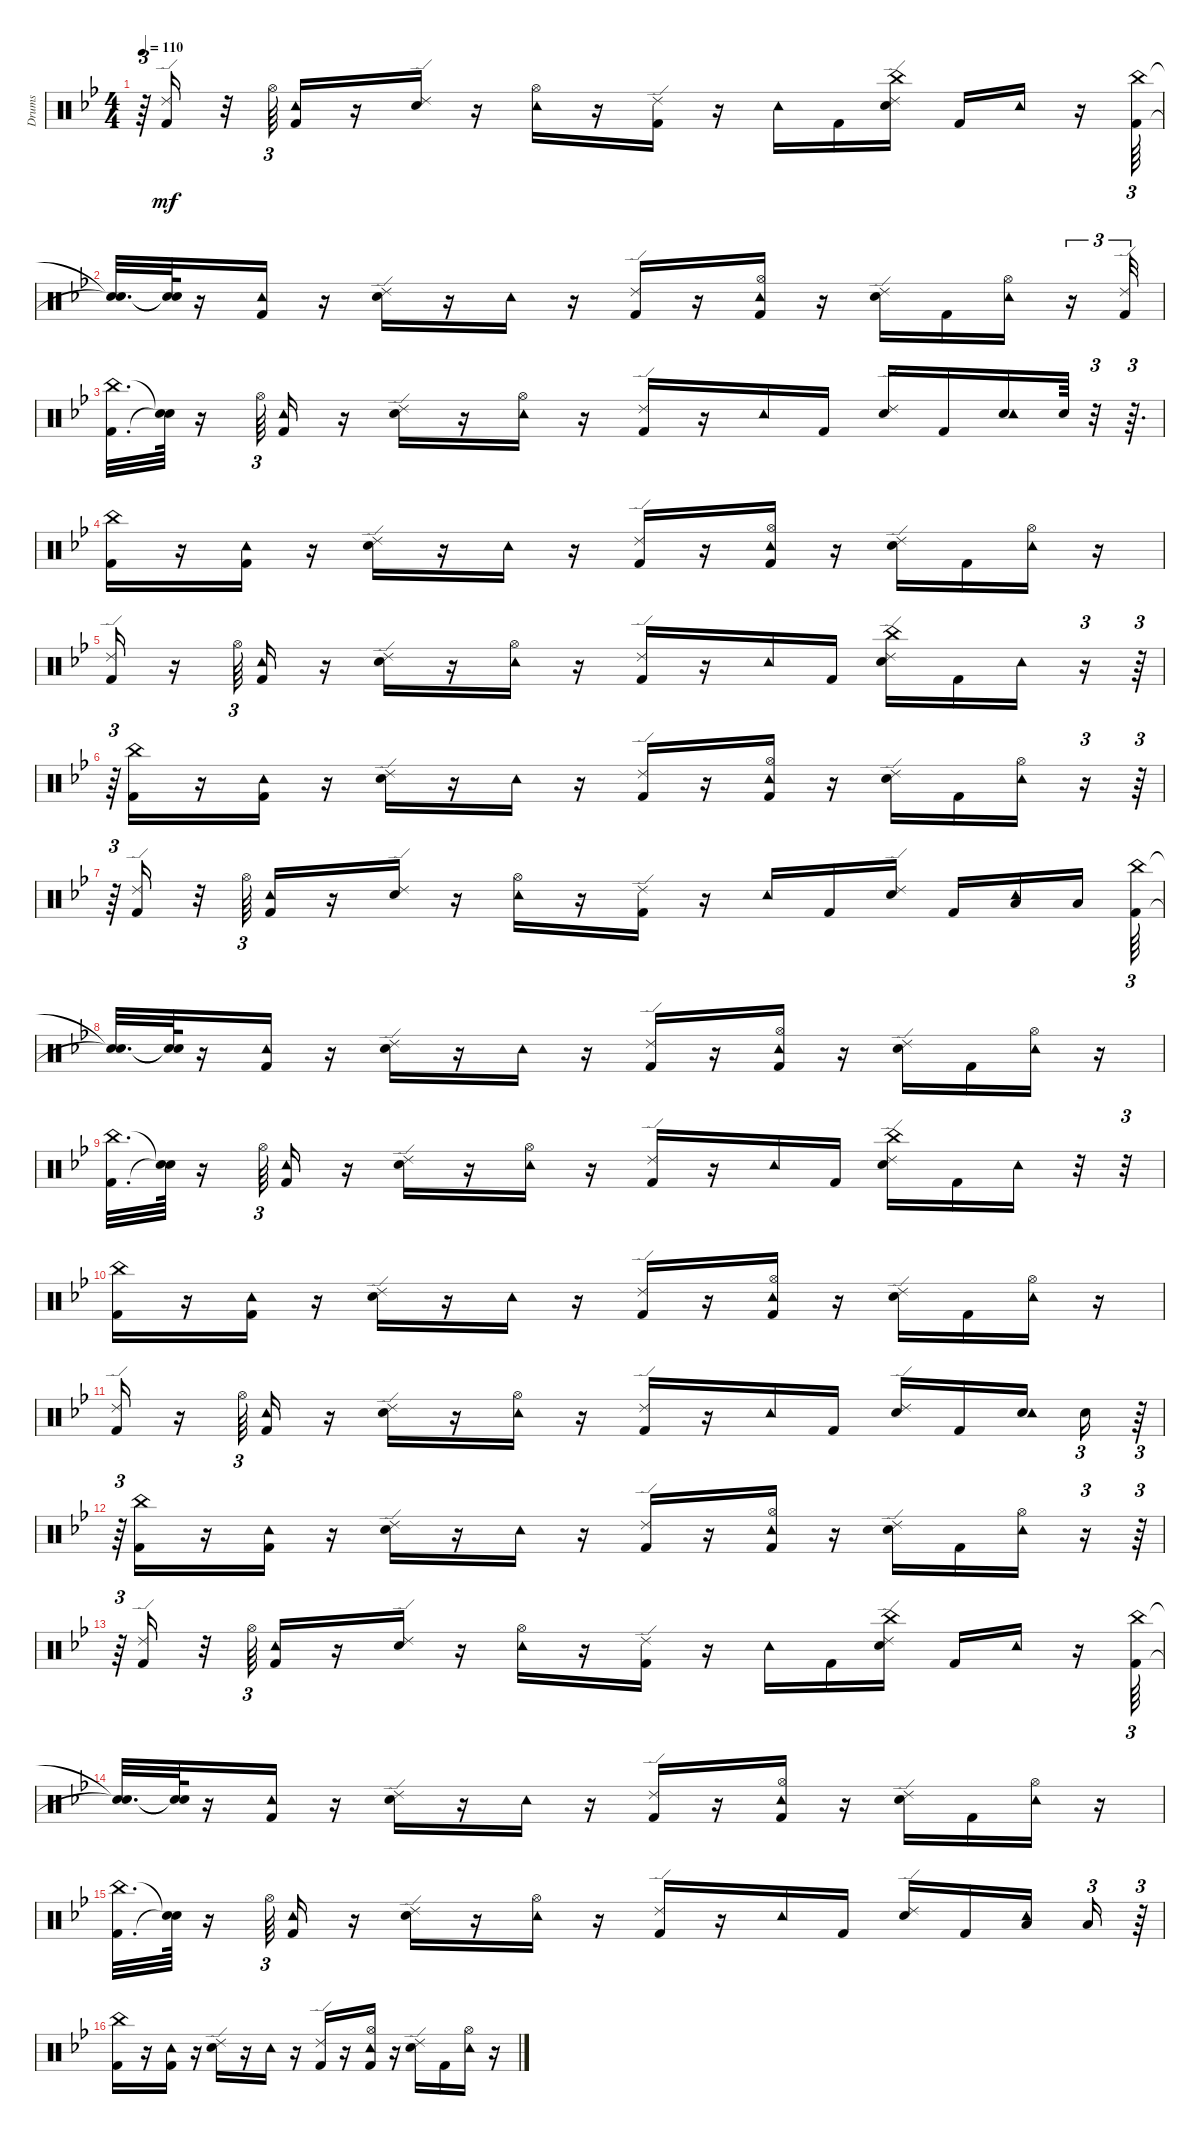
\track ("Drums" "Drums") {instrument percussion}
\staff {score}
\articulation defaults
\ts (4 4)
\tempo 110
\clef neutral
\ks gminor
r.64{tu (3 2) dy mf} ("Kick (hit) 2" "Ride (edge) 2").16 r.32 "Hi-Hat (open)".64{tu (3 2)} ("Kick (hit) 2" "Tambourine (hit)").16 r.16 ("Snare (hit) 2" "Ride (edge) 2").16 r.16 ("Hi-Hat (open)" "Tambourine (hit)").16 r.16 ("Kick (hit) 2" "Ride (edge) 2").16 r.16 "Tambourine (hit)".16 "Kick (hit) 2".16 ("Snare (hit) 2" "China (hit)" "Ride (edge) 2").16 "Kick (hit) 2".16 "Tambourine (hit)".16 r.16 ("Kick (hit) 2" "China (hit)").64{tu (3 2)} |
("Snare (hit)"{t} "Snare (hit)"{t}).32{d} ("Snare (hit)"{t} "Snare (hit)"{t}).64 r.16 ("Kick (hit) 2" "Tambourine (hit)").16 r.16 ("Snare (hit) 2" "Ride (edge) 2").16 r.16 "Tambourine (hit)".16 r.16 ("Kick (hit) 2" "Ride (edge) 2").16 r.16 ("Kick (hit) 2" "Hi-Hat (open)" "Tambourine (hit)").16 r.16 ("Snare (hit) 2" "Ride (edge) 2").16 "Kick (hit) 2".16 ("Hi-Hat (open)" "Tambourine (hit)").16 r.16{tu (3 2)} ("Kick (hit) 2" "Ride (edge) 2").32{tu (3 2)} |
("Kick (hit) 2" "China (hit)").32{d} ("Snare (hit)"{t} "Snare (hit)"{t}).64 r.16 "Hi-Hat (open)".64{tu (3 2)} ("Kick (hit) 2" "Tambourine (hit)").16 r.16 ("Snare (hit) 2" "Ride (edge) 2").16 r.16 ("Hi-Hat (open)" "Tambourine (hit)").16 r.16 ("Kick (hit) 2" "Ride (edge) 2").16 r.16 "Tambourine (hit)".16 "Kick (hit) 2".16 ("Snare (hit) 2" "Ride (edge) 2").16 "Kick (hit) 2".16 ("Snare (hit) 2" "Tambourine (hit)").16 "Snare (hit) 2".64 r.32{tu (3 2)} r.64{d tu (3 2)} |
("Kick (hit) 2" "China (hit)").16 r.16 ("Kick (hit) 2" "Tambourine (hit)").16 r.16 ("Snare (hit) 2" "Ride (edge) 2").16 r.16 "Tambourine (hit)".16 r.16 ("Kick (hit) 2" "Ride (edge) 2").16 r.16 ("Kick (hit) 2" "Hi-Hat (open)" "Tambourine (hit)").16 r.16 ("Snare (hit) 2" "Ride (edge) 2").16 "Kick (hit) 2".16 ("Hi-Hat (open)" "Tambourine (hit)").16 r.16 |
("Kick (hit) 2" "Ride (edge) 2").16 r.16 "Hi-Hat (open)".64{tu (3 2)} ("Kick (hit) 2" "Tambourine (hit)").16 r.16 ("Snare (hit) 2" "Ride (edge) 2").16 r.16 ("Hi-Hat (open)" "Tambourine (hit)").16 r.16 ("Kick (hit) 2" "Ride (edge) 2").16 r.16 "Tambourine (hit)".16 "Kick (hit) 2".16 ("Snare (hit) 2" "China (hit)" "Ride (edge) 2").16 "Kick (hit) 2".16 "Tambourine (hit)".16 r.16{tu (3 2)} r.64{tu (3 2)} |
r.64{tu (3 2)} ("Kick (hit) 2" "China (hit)").16 r.16 ("Kick (hit) 2" "Tambourine (hit)").16 r.16 ("Snare (hit) 2" "Ride (edge) 2").16 r.16 "Tambourine (hit)".16 r.16 ("Kick (hit) 2" "Ride (edge) 2").16 r.16 ("Kick (hit) 2" "Hi-Hat (open)" "Tambourine (hit)").16 r.16 ("Snare (hit) 2" "Ride (edge) 2").16 "Kick (hit) 2".16 ("Hi-Hat (open)" "Tambourine (hit)").16 r.16{tu (3 2)} r.64{tu (3 2)} |
r.64{tu (3 2)} ("Kick (hit) 2" "Ride (edge) 2").16 r.32 "Hi-Hat (open)".64{tu (3 2)} ("Kick (hit) 2" "Tambourine (hit)").16 r.16 ("Snare (hit) 2" "Ride (edge) 2").16 r.16 ("Hi-Hat (open)" "Tambourine (hit)").16 r.16 ("Kick (hit) 2" "Ride (edge) 2").16 r.16 "Tambourine (hit)".16 "Kick (hit) 2".16 ("Snare (hit) 2" "Ride (edge) 2").16 "Kick (hit) 2".16 ("Low Floor Tom (hit)" "Tambourine (hit)").16 "Low Floor Tom (hit)".16{beam splitsecondary} ("Kick (hit) 2" "China (hit)").64{tu (3 2)} |
("Snare (hit)"{t} "Snare (hit)"{t}).32{d} ("Snare (hit)"{t} "Snare (hit)"{t}).64 r.16 ("Kick (hit) 2" "Tambourine (hit)").16 r.16 ("Snare (hit) 2" "Ride (edge) 2").16 r.16 "Tambourine (hit)".16 r.16 ("Kick (hit) 2" "Ride (edge) 2").16 r.16 ("Kick (hit) 2" "Hi-Hat (open)" "Tambourine (hit)").16 r.16 ("Snare (hit) 2" "Ride (edge) 2").16 "Kick (hit) 2".16 ("Hi-Hat (open)" "Tambourine (hit)").16 r.16 |
("Kick (hit) 2" "China (hit)").32{d} ("Snare (hit)"{t} "Snare (hit)"{t}).64 r.16 "Hi-Hat (open)".64{tu (3 2)} ("Kick (hit) 2" "Tambourine (hit)").16 r.16 ("Snare (hit) 2" "Ride (edge) 2").16 r.16 ("Hi-Hat (open)" "Tambourine (hit)").16 r.16 ("Kick (hit) 2" "Ride (edge) 2").16 r.16 "Tambourine (hit)".16 "Kick (hit) 2".16 ("Snare (hit) 2" "China (hit)" "Ride (edge) 2").16 "Kick (hit) 2".16 "Tambourine (hit)".16 r.32 r.32{tu (3 2)} |
("Kick (hit) 2" "China (hit)").16 r.16 ("Kick (hit) 2" "Tambourine (hit)").16 r.16 ("Snare (hit) 2" "Ride (edge) 2").16 r.16 "Tambourine (hit)".16 r.16 ("Kick (hit) 2" "Ride (edge) 2").16 r.16 ("Kick (hit) 2" "Hi-Hat (open)" "Tambourine (hit)").16 r.16 ("Snare (hit) 2" "Ride (edge) 2").16 "Kick (hit) 2".16 ("Hi-Hat (open)" "Tambourine (hit)").16 r.16 |
("Kick (hit) 2" "Ride (edge) 2").16 r.16 "Hi-Hat (open)".64{tu (3 2)} ("Kick (hit) 2" "Tambourine (hit)").16 r.16 ("Snare (hit) 2" "Ride (edge) 2").16 r.16 ("Hi-Hat (open)" "Tambourine (hit)").16 r.16 ("Kick (hit) 2" "Ride (edge) 2").16 r.16 "Tambourine (hit)".16 "Kick (hit) 2".16 ("Snare (hit) 2" "Ride (edge) 2").16 "Kick (hit) 2".16 ("Snare (hit) 2" "Tambourine (hit)").16{beam splitsecondary} "Snare (hit) 2".16{tu (3 2)} r.64{tu (3 2)} |
r.64{tu (3 2)} ("Kick (hit) 2" "China (hit)").16 r.16 ("Kick (hit) 2" "Tambourine (hit)").16 r.16 ("Snare (hit) 2" "Ride (edge) 2").16 r.16 "Tambourine (hit)".16 r.16 ("Kick (hit) 2" "Ride (edge) 2").16 r.16 ("Kick (hit) 2" "Hi-Hat (open)" "Tambourine (hit)").16 r.16 ("Snare (hit) 2" "Ride (edge) 2").16 "Kick (hit) 2".16 ("Hi-Hat (open)" "Tambourine (hit)").16 r.16{tu (3 2)} r.64{tu (3 2)} |
r.64{tu (3 2)} ("Kick (hit) 2" "Ride (edge) 2").16 r.32 "Hi-Hat (open)".64{tu (3 2)} ("Kick (hit) 2" "Tambourine (hit)").16 r.16 ("Snare (hit) 2" "Ride (edge) 2").16 r.16 ("Hi-Hat (open)" "Tambourine (hit)").16 r.16 ("Kick (hit) 2" "Ride (edge) 2").16 r.16 "Tambourine (hit)".16 "Kick (hit) 2".16 ("Snare (hit) 2" "China (hit)" "Ride (edge) 2").16 "Kick (hit) 2".16 "Tambourine (hit)".16 r.16 ("Kick (hit) 2" "China (hit)").64{tu (3 2)} |
("Snare (hit)"{t} "Snare (hit)"{t}).32{d} ("Snare (hit)"{t} "Snare (hit)"{t}).64 r.16 ("Kick (hit) 2" "Tambourine (hit)").16 r.16 ("Snare (hit) 2" "Ride (edge) 2").16 r.16 "Tambourine (hit)".16 r.16 ("Kick (hit) 2" "Ride (edge) 2").16 r.16 ("Kick (hit) 2" "Hi-Hat (open)" "Tambourine (hit)").16 r.16 ("Snare (hit) 2" "Ride (edge) 2").16 "Kick (hit) 2".16 ("Hi-Hat (open)" "Tambourine (hit)").16 r.16 |
("Kick (hit) 2" "China (hit)").32{d} ("Snare (hit)"{t} "Snare (hit)"{t}).64 r.16 "Hi-Hat (open)".64{tu (3 2)} ("Kick (hit) 2" "Tambourine (hit)").16 r.16 ("Snare (hit) 2" "Ride (edge) 2").16 r.16 ("Hi-Hat (open)" "Tambourine (hit)").16 r.16 ("Kick (hit) 2" "Ride (edge) 2").16 r.16 "Tambourine (hit)".16 "Kick (hit) 2".16 ("Snare (hit) 2" "Ride (edge) 2").16 "Kick (hit) 2".16 ("Low Floor Tom (hit)" "Tambourine (hit)").16{beam splitsecondary} "Low Floor Tom (hit)".16{tu (3 2)} r.64{tu (3 2)} |
("Kick (hit) 2" "China (hit)").16 r.16 ("Kick (hit) 2" "Tambourine (hit)").16 r.16 ("Snare (hit) 2" "Ride (edge) 2").16 r.16 "Tambourine (hit)".16 r.16 ("Kick (hit) 2" "Ride (edge) 2").16 r.16 ("Kick (hit) 2" "Hi-Hat (open)" "Tambourine (hit)").16 r.16 ("Snare (hit) 2" "Ride (edge) 2").16 "Kick (hit) 2".16 ("Hi-Hat (open)" "Tambourine (hit)").16 r.16
